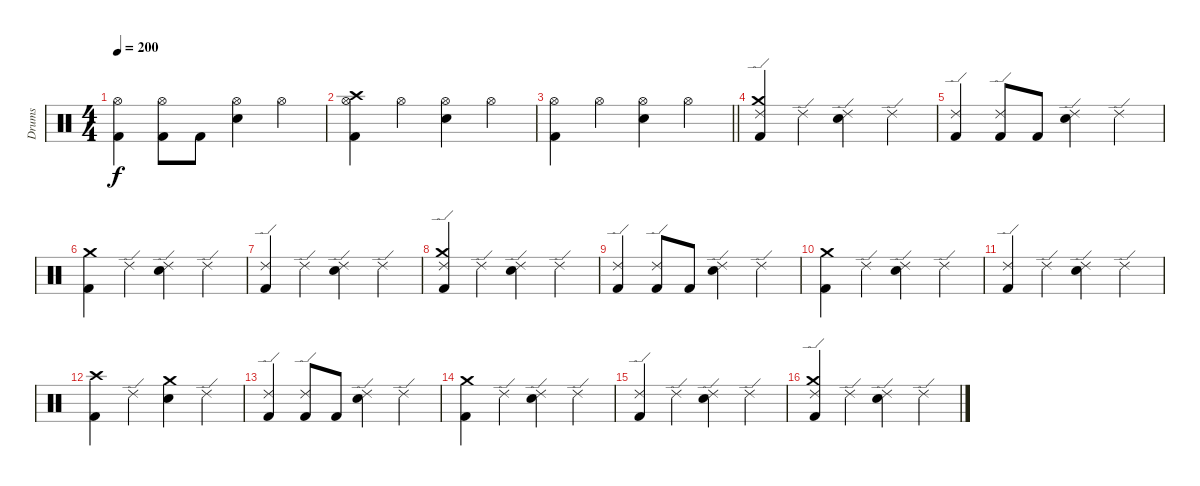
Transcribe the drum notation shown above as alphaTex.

\track ("Drums" "Drums") {instrument percussion}
\staff {score}
\articulation defaults
\ts (4 4)
\tempo 200
\clef neutral
\ks c
("Hi-Hat (open)" "Kick (hit) 2").4{dy f} ("Hi-Hat (open)" "Kick (hit) 2").8 "Kick (hit) 2".8 ("Hi-Hat (open)" "Snare (hit) 2").4 "Hi-Hat (open)".4 |
("Crash high (hit)" "Hi-Hat (open)" "Kick (hit) 2").4 "Hi-Hat (open)".4 ("Hi-Hat (open)" "Snare (hit) 2").4 "Hi-Hat (open)".4 |
\barLineRight lightlight
("Hi-Hat (open)" "Kick (hit) 2").4 "Hi-Hat (open)".4 ("Hi-Hat (open)" "Snare (hit) 2").4 "Hi-Hat (open)".4 |
("Crash medium (hit)" "Ride (edge) 2" "Kick (hit) 2").4 "Ride (edge) 2".4 ("Ride (edge) 2" "Snare (hit) 2").4 "Ride (edge) 2".4 |
("Ride (edge) 2" "Kick (hit) 2").4 ("Ride (edge) 2" "Kick (hit) 2").8 "Kick (hit) 2".8 ("Ride (edge) 2" "Snare (hit) 2").4 "Ride (edge) 2".4 |
("Crash medium (hit)" "Kick (hit) 2").4 "Ride (edge) 2".4 ("Ride (edge) 2" "Snare (hit) 2").4 "Ride (edge) 2".4 |
("Ride (edge) 2" "Kick (hit) 2").4 "Ride (edge) 2".4 ("Ride (edge) 2" "Snare (hit) 2").4 "Ride (edge) 2".4 |
("Crash medium (hit)" "Ride (edge) 2" "Kick (hit) 2").4 "Ride (edge) 2".4 ("Ride (edge) 2" "Snare (hit) 2").4 "Ride (edge) 2".4 |
("Ride (edge) 2" "Kick (hit) 2").4 ("Ride (edge) 2" "Kick (hit) 2").8 "Kick (hit) 2".8 ("Ride (edge) 2" "Snare (hit) 2").4 "Ride (edge) 2".4 |
("Crash medium (hit)" "Kick (hit) 2").4 "Ride (edge) 2".4 ("Ride (edge) 2" "Snare (hit) 2").4 "Ride (edge) 2".4 |
("Ride (edge) 2" "Kick (hit) 2").4 "Ride (edge) 2".4 ("Ride (edge) 2" "Snare (hit) 2").4 "Ride (edge) 2".4 |
("Crash high (hit)" "Kick (hit) 2").4 "Ride (edge) 2".4 ("Crash medium (hit)" "Snare (hit) 2").4 "Ride (edge) 2".4 |
("Ride (edge) 2" "Kick (hit) 2").4 ("Ride (edge) 2" "Kick (hit) 2").8 "Kick (hit) 2".8 ("Ride (edge) 2" "Snare (hit) 2").4 "Ride (edge) 2".4 |
("Crash medium (hit)" "Kick (hit) 2").4 "Ride (edge) 2".4 ("Ride (edge) 2" "Snare (hit) 2").4 "Ride (edge) 2".4 |
("Ride (edge) 2" "Kick (hit) 2").4 "Ride (edge) 2".4 ("Ride (edge) 2" "Snare (hit) 2").4 "Ride (edge) 2".4 |
("Crash medium (hit)" "Ride (edge) 2" "Kick (hit) 2").4 "Ride (edge) 2".4 ("Ride (edge) 2" "Snare (hit) 2").4 "Ride (edge) 2".4
